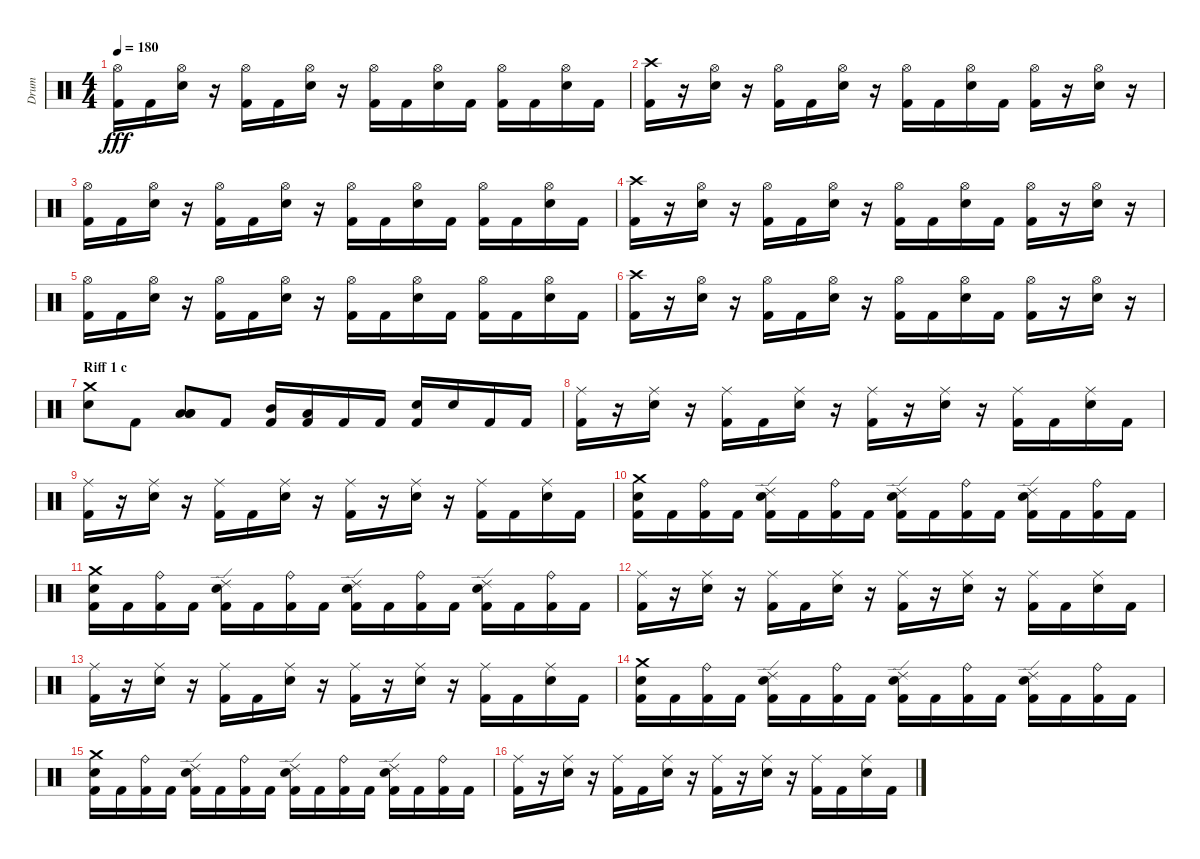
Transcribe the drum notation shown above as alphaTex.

\track ("Drum" "Drum") {instrument percussion}
\staff {score}
\articulation defaults
\ts (4 4)
\tempo 180
\clef neutral
\ks c
("Kick (hit) 2" "Hi-Hat (open)").16{dy fff} "Kick (hit) 2".16 ("Electric Snare (hit)" "Hi-Hat (open)").16 r.16 ("Kick (hit) 2" "Hi-Hat (open)").16 "Kick (hit) 2".16 ("Electric Snare (hit)" "Hi-Hat (open)").16 r.16 ("Kick (hit) 2" "Hi-Hat (open)").16 "Kick (hit) 2".16 ("Electric Snare (hit)" "Hi-Hat (open)").16 "Kick (hit) 2".16 ("Kick (hit) 2" "Hi-Hat (open)").16 "Kick (hit) 2".16 ("Electric Snare (hit)" "Hi-Hat (open)").16 "Kick (hit) 2".16 |
("Kick (hit) 2" "Crash high (hit)").16 r.16 ("Electric Snare (hit)" "Hi-Hat (open)").16 r.16 ("Kick (hit) 2" "Hi-Hat (open)").16 "Kick (hit) 2".16 ("Electric Snare (hit)" "Hi-Hat (open)").16 r.16 ("Kick (hit) 2" "Hi-Hat (open)").16 "Kick (hit) 2".16 ("Electric Snare (hit)" "Hi-Hat (open)").16 "Kick (hit) 2".16 ("Kick (hit) 2" "Hi-Hat (open)").16 r.16 ("Electric Snare (hit)" "Hi-Hat (open)").16 r.16 |
("Kick (hit) 2" "Hi-Hat (open)").16 "Kick (hit) 2".16 ("Electric Snare (hit)" "Hi-Hat (open)").16 r.16 ("Kick (hit) 2" "Hi-Hat (open)").16 "Kick (hit) 2".16 ("Electric Snare (hit)" "Hi-Hat (open)").16 r.16 ("Kick (hit) 2" "Hi-Hat (open)").16 "Kick (hit) 2".16 ("Electric Snare (hit)" "Hi-Hat (open)").16 "Kick (hit) 2".16 ("Kick (hit) 2" "Hi-Hat (open)").16 "Kick (hit) 2".16 ("Electric Snare (hit)" "Hi-Hat (open)").16 "Kick (hit) 2".16 |
("Kick (hit) 2" "Crash high (hit)").16 r.16 ("Electric Snare (hit)" "Hi-Hat (open)").16 r.16 ("Kick (hit) 2" "Hi-Hat (open)").16 "Kick (hit) 2".16 ("Electric Snare (hit)" "Hi-Hat (open)").16 r.16 ("Kick (hit) 2" "Hi-Hat (open)").16 "Kick (hit) 2".16 ("Electric Snare (hit)" "Hi-Hat (open)").16 "Kick (hit) 2".16 ("Kick (hit) 2" "Hi-Hat (open)").16 r.16 ("Electric Snare (hit)" "Hi-Hat (open)").16 r.16 |
("Kick (hit) 2" "Hi-Hat (open)").16 "Kick (hit) 2".16 ("Electric Snare (hit)" "Hi-Hat (open)").16 r.16 ("Kick (hit) 2" "Hi-Hat (open)").16 "Kick (hit) 2".16 ("Electric Snare (hit)" "Hi-Hat (open)").16 r.16 ("Kick (hit) 2" "Hi-Hat (open)").16 "Kick (hit) 2".16 ("Electric Snare (hit)" "Hi-Hat (open)").16 "Kick (hit) 2".16 ("Kick (hit) 2" "Hi-Hat (open)").16 "Kick (hit) 2".16 ("Electric Snare (hit)" "Hi-Hat (open)").16 "Kick (hit) 2".16 |
("Kick (hit) 2" "Crash high (hit)").16 r.16 ("Electric Snare (hit)" "Hi-Hat (open)").16 r.16 ("Kick (hit) 2" "Hi-Hat (open)").16 "Kick (hit) 2".16 ("Electric Snare (hit)" "Hi-Hat (open)").16 r.16 ("Kick (hit) 2" "Hi-Hat (open)").16 "Kick (hit) 2".16 ("Electric Snare (hit)" "Hi-Hat (open)").16 "Kick (hit) 2".16 ("Kick (hit) 2" "Hi-Hat (open)").16 r.16 ("Electric Snare (hit)" "Hi-Hat (open)").16 r.16 |
\section ("" "Riff 1 c")
("Electric Snare (hit)" "Crash medium (hit)").8 "Kick (hit) 2".8 ("Low Floor Tom (hit)" "Low Tom (hit)" "Low Floor Tom (hit)").8 "Kick (hit) 2".8 ("Kick (hit) 2" "Mid Tom (hit)").16 ("Kick (hit) 2" "Low Tom (hit)").16 "Kick (hit) 2".16 "Kick (hit) 2".16 ("Electric Snare (hit)" "Kick (hit) 2").16 "Electric Snare (hit)".16 "Kick (hit) 2".16 "Kick (hit) 2".16 |
("Kick (hit) 2" "Ride (middle)").16 r.16 ("Electric Snare (hit)" "Ride (middle)").16 r.16 ("Kick (hit) 2" "Ride (middle)").16 "Kick (hit) 2".16 ("Electric Snare (hit)" "Ride (middle)").16 r.16 ("Kick (hit) 2" "Ride (middle)").16 r.16 ("Electric Snare (hit)" "Ride (middle)").16 r.16 ("Kick (hit) 2" "Ride (middle)").16 "Kick (hit) 2".16 ("Electric Snare (hit)" "Ride (middle)").16 "Kick (hit) 2".16 |
("Kick (hit) 2" "Ride (middle)").16 r.16 ("Electric Snare (hit)" "Ride (middle)").16 r.16 ("Kick (hit) 2" "Ride (middle)").16 "Kick (hit) 2".16 ("Electric Snare (hit)" "Ride (middle)").16 r.16 ("Kick (hit) 2" "Ride (middle)").16 r.16 ("Electric Snare (hit)" "Ride (middle)").16 r.16 ("Kick (hit) 2" "Ride (middle)").16 "Kick (hit) 2".16 ("Electric Snare (hit)" "Ride (middle)").16 "Kick (hit) 2".16 |
("Electric Snare (hit)" "Kick (hit) 2" "Crash medium (hit)").16 "Kick (hit) 2".16 ("Kick (hit) 2" "Ride (bell)").16 "Kick (hit) 2".16 ("Kick (hit) 2" "Electric Snare (hit)" "Ride (edge) 2").16 "Kick (hit) 2".16 ("Kick (hit) 2" "Ride (bell)").16 "Kick (hit) 2".16 ("Electric Snare (hit)" "Kick (hit) 2" "Ride (edge) 2").16 "Kick (hit) 2".16 ("Kick (hit) 2" "Ride (bell)").16 "Kick (hit) 2".16 ("Kick (hit) 2" "Electric Snare (hit)" "Ride (edge) 2").16 "Kick (hit) 2".16 ("Kick (hit) 2" "Ride (bell)").16 "Kick (hit) 2".16 |
("Kick (hit) 2" "Electric Snare (hit)" "Crash medium (hit)").16 "Kick (hit) 2".16 ("Kick (hit) 2" "Ride (bell)").16 "Kick (hit) 2".16 ("Electric Snare (hit)" "Kick (hit) 2" "Ride (edge) 2").16 "Kick (hit) 2".16 ("Kick (hit) 2" "Ride (bell)").16 "Kick (hit) 2".16 ("Kick (hit) 2" "Electric Snare (hit)" "Ride (edge) 2").16 "Kick (hit) 2".16 ("Kick (hit) 2" "Ride (bell)").16 "Kick (hit) 2".16 ("Electric Snare (hit)" "Kick (hit) 2" "Ride (edge) 2").16 "Kick (hit) 2".16 ("Kick (hit) 2" "Ride (bell)").16 "Kick (hit) 2".16 |
("Kick (hit) 2" "Ride (middle)").16 r.16 ("Electric Snare (hit)" "Ride (middle)").16 r.16 ("Kick (hit) 2" "Ride (middle)").16 "Kick (hit) 2".16 ("Electric Snare (hit)" "Ride (middle)").16 r.16 ("Kick (hit) 2" "Ride (middle)").16 r.16 ("Electric Snare (hit)" "Ride (middle)").16 r.16 ("Kick (hit) 2" "Ride (middle)").16 "Kick (hit) 2".16 ("Electric Snare (hit)" "Ride (middle)").16 "Kick (hit) 2".16 |
("Kick (hit) 2" "Ride (middle)").16 r.16 ("Electric Snare (hit)" "Ride (middle)").16 r.16 ("Kick (hit) 2" "Ride (middle)").16 "Kick (hit) 2".16 ("Electric Snare (hit)" "Ride (middle)").16 r.16 ("Kick (hit) 2" "Ride (middle)").16 r.16 ("Electric Snare (hit)" "Ride (middle)").16 r.16 ("Kick (hit) 2" "Ride (middle)").16 "Kick (hit) 2".16 ("Electric Snare (hit)" "Ride (middle)").16 "Kick (hit) 2".16 |
("Electric Snare (hit)" "Kick (hit) 2" "Crash medium (hit)").16 "Kick (hit) 2".16 ("Kick (hit) 2" "Ride (bell)").16 "Kick (hit) 2".16 ("Kick (hit) 2" "Electric Snare (hit)" "Ride (edge) 2").16 "Kick (hit) 2".16 ("Kick (hit) 2" "Ride (bell)").16 "Kick (hit) 2".16 ("Kick (hit) 2" "Electric Snare (hit)" "Ride (edge) 2").16 "Kick (hit) 2".16 ("Kick (hit) 2" "Ride (bell)").16 "Kick (hit) 2".16 ("Kick (hit) 2" "Electric Snare (hit)" "Ride (edge) 2").16 "Kick (hit) 2".16 ("Kick (hit) 2" "Ride (bell)").16 "Kick (hit) 2".16 |
("Kick (hit) 2" "Electric Snare (hit)" "Crash medium (hit)").16 "Kick (hit) 2".16 ("Kick (hit) 2" "Ride (bell)").16 "Kick (hit) 2".16 ("Electric Snare (hit)" "Kick (hit) 2" "Ride (edge) 2").16 "Kick (hit) 2".16 ("Kick (hit) 2" "Ride (bell)").16 "Kick (hit) 2".16 ("Electric Snare (hit)" "Kick (hit) 2" "Ride (edge) 2").16 "Kick (hit) 2".16 ("Kick (hit) 2" "Ride (bell)").16 "Kick (hit) 2".16 ("Kick (hit) 2" "Electric Snare (hit)" "Ride (edge) 2").16 "Kick (hit) 2".16 ("Kick (hit) 2" "Ride (bell)").16 "Kick (hit) 2".16 |
("Kick (hit) 2" "Ride (middle)").16 r.16 ("Electric Snare (hit)" "Ride (middle)").16 r.16 ("Kick (hit) 2" "Ride (middle)").16 "Kick (hit) 2".16 ("Electric Snare (hit)" "Ride (middle)").16 r.16 ("Kick (hit) 2" "Ride (middle)").16 r.16 ("Electric Snare (hit)" "Ride (middle)").16 r.16 ("Kick (hit) 2" "Ride (middle)").16 "Kick (hit) 2".16 ("Electric Snare (hit)" "Ride (middle)").16 "Kick (hit) 2".16
